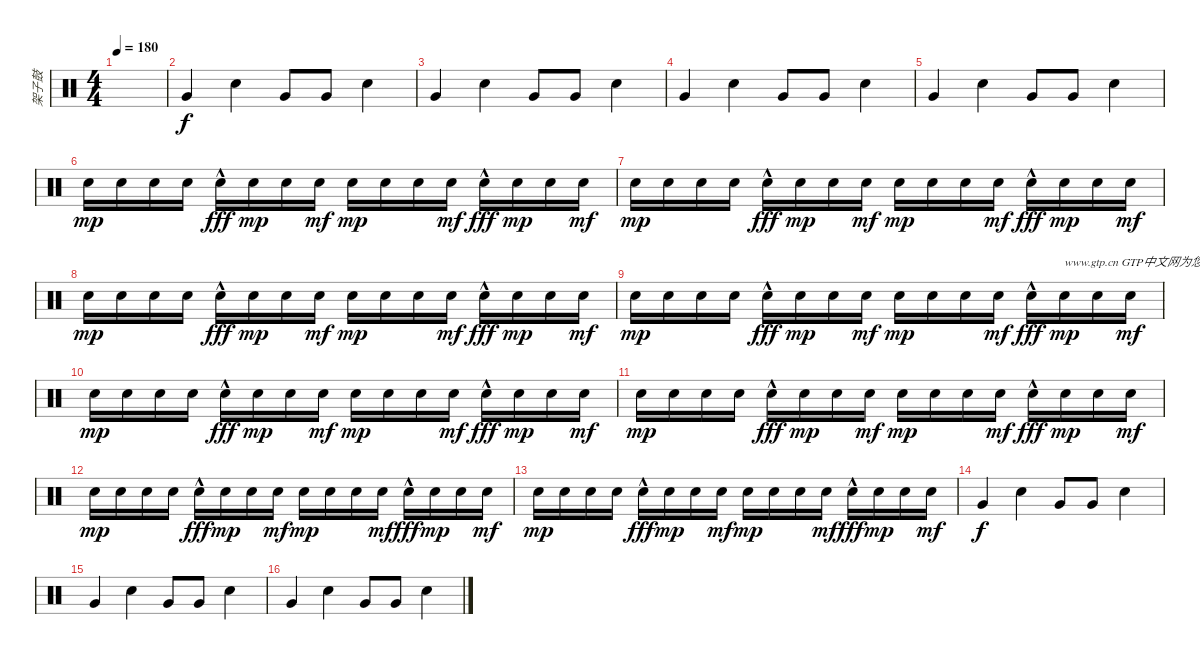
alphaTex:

\track ("架子鼓" "架子鼓") {instrument percussion}
\staff {score}
\articulation defaults
\ts (4 4)
\tempo 180
\clef neutral
\ks c
|
"Very Low Tom (hit)".4 "Electric Snare (hit)".4 "Very Low Tom (hit)".8 "Very Low Tom (hit)".8 "Electric Snare (hit)".4 |
"Very Low Tom (hit)".4 "Electric Snare (hit)".4 "Very Low Tom (hit)".8 "Very Low Tom (hit)".8 "Electric Snare (hit)".4 |
"Very Low Tom (hit)".4 "Electric Snare (hit)".4 "Very Low Tom (hit)".8 "Very Low Tom (hit)".8 "Electric Snare (hit)".4 |
"Very Low Tom (hit)".4 "Electric Snare (hit)".4 "Very Low Tom (hit)".8 "Very Low Tom (hit)".8 "Electric Snare (hit)".4 |
"Snare (hit) 2".16{dy mp} "Snare (hit) 2".16 "Snare (hit) 2".16 "Snare (hit) 2".16 "Electric Snare (hit)"{hac}.16{dy fff} "Snare (hit) 2".16{dy mp} "Snare (hit) 2".16 "Snare (hit) 2".16{dy mf} "Snare (hit) 2".16{dy mp} "Snare (hit) 2".16 "Snare (hit) 2".16 "Snare (hit) 2".16{dy mf} "Electric Snare (hit)"{hac}.16{dy fff} "Snare (hit) 2".16{dy mp} "Snare (hit) 2".16 "Snare (hit) 2".16{dy mf} |
"Snare (hit) 2".16{dy mp} "Snare (hit) 2".16 "Snare (hit) 2".16 "Snare (hit) 2".16 "Electric Snare (hit)"{hac}.16{dy fff} "Snare (hit) 2".16{dy mp} "Snare (hit) 2".16 "Snare (hit) 2".16{dy mf} "Snare (hit) 2".16{dy mp} "Snare (hit) 2".16 "Snare (hit) 2".16 "Snare (hit) 2".16{dy mf} "Electric Snare (hit)"{hac}.16{dy fff} "Snare (hit) 2".16{dy mp} "Snare (hit) 2".16 "Snare (hit) 2".16{dy mf} |
"Snare (hit) 2".16{dy mp} "Snare (hit) 2".16 "Snare (hit) 2".16 "Snare (hit) 2".16 "Electric Snare (hit)"{hac}.16{dy fff} "Snare (hit) 2".16{dy mp} "Snare (hit) 2".16 "Snare (hit) 2".16{dy mf} "Snare (hit) 2".16{dy mp} "Snare (hit) 2".16 "Snare (hit) 2".16 "Snare (hit) 2".16{dy mf} "Electric Snare (hit)"{hac}.16{dy fff} "Snare (hit) 2".16{dy mp} "Snare (hit) 2".16 "Snare (hit) 2".16{dy mf} |
"Snare (hit) 2".16{dy mp} "Snare (hit) 2".16 "Snare (hit) 2".16 "Snare (hit) 2".16 "Electric Snare (hit)"{hac}.16{dy fff} "Snare (hit) 2".16{dy mp} "Snare (hit) 2".16 "Snare (hit) 2".16{dy mf} "Snare (hit) 2".16{dy mp} "Snare (hit) 2".16 "Snare (hit) 2".16 "Snare (hit) 2".16{dy mf} "Electric Snare (hit)"{hac}.16{dy fff} "Snare (hit) 2".16{txt "www.gtp.cn GTP中文网为您提供优秀的谱子" dy mp} "Snare (hit) 2".16 "Snare (hit) 2".16{dy mf} |
"Snare (hit) 2".16{dy mp} "Snare (hit) 2".16 "Snare (hit) 2".16 "Snare (hit) 2".16 "Electric Snare (hit)"{hac}.16{dy fff} "Snare (hit) 2".16{dy mp} "Snare (hit) 2".16 "Snare (hit) 2".16{dy mf} "Snare (hit) 2".16{dy mp} "Snare (hit) 2".16 "Snare (hit) 2".16 "Snare (hit) 2".16{dy mf} "Electric Snare (hit)"{hac}.16{dy fff} "Snare (hit) 2".16{dy mp} "Snare (hit) 2".16 "Snare (hit) 2".16{dy mf} |
"Snare (hit) 2".16{dy mp} "Snare (hit) 2".16 "Snare (hit) 2".16 "Snare (hit) 2".16 "Electric Snare (hit)"{hac}.16{dy fff} "Snare (hit) 2".16{dy mp} "Snare (hit) 2".16 "Snare (hit) 2".16{dy mf} "Snare (hit) 2".16{dy mp} "Snare (hit) 2".16 "Snare (hit) 2".16 "Snare (hit) 2".16{dy mf} "Electric Snare (hit)"{hac}.16{dy fff} "Snare (hit) 2".16{dy mp} "Snare (hit) 2".16 "Snare (hit) 2".16{dy mf} |
"Snare (hit) 2".16{dy mp} "Snare (hit) 2".16 "Snare (hit) 2".16 "Snare (hit) 2".16 "Electric Snare (hit)"{hac}.16{dy fff} "Snare (hit) 2".16{dy mp} "Snare (hit) 2".16 "Snare (hit) 2".16{dy mf} "Snare (hit) 2".16{dy mp} "Snare (hit) 2".16 "Snare (hit) 2".16 "Snare (hit) 2".16{dy mf} "Electric Snare (hit)"{hac}.16{dy fff} "Snare (hit) 2".16{dy mp} "Snare (hit) 2".16 "Snare (hit) 2".16{dy mf} |
"Snare (hit) 2".16{dy mp} "Snare (hit) 2".16 "Snare (hit) 2".16 "Snare (hit) 2".16 "Electric Snare (hit)"{hac}.16{dy fff} "Snare (hit) 2".16{dy mp} "Snare (hit) 2".16 "Snare (hit) 2".16{dy mf} "Snare (hit) 2".16{dy mp} "Snare (hit) 2".16 "Snare (hit) 2".16 "Snare (hit) 2".16{dy mf} "Electric Snare (hit)"{hac}.16{dy fff} "Snare (hit) 2".16{dy mp} "Snare (hit) 2".16 "Snare (hit) 2".16{dy mf} |
"Very Low Tom (hit)".4{dy f} "Electric Snare (hit)".4 "Very Low Tom (hit)".8 "Very Low Tom (hit)".8 "Electric Snare (hit)".4 |
"Very Low Tom (hit)".4 "Electric Snare (hit)".4 "Very Low Tom (hit)".8 "Very Low Tom (hit)".8 "Electric Snare (hit)".4 |
"Very Low Tom (hit)".4 "Electric Snare (hit)".4 "Very Low Tom (hit)".8 "Very Low Tom (hit)".8 "Electric Snare (hit)".4
